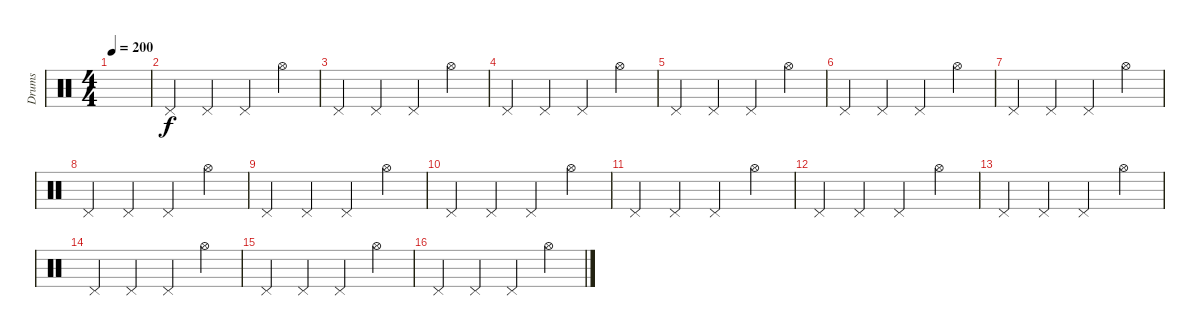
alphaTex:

\track ("Drums" "Drums") {instrument percussion}
\staff {score}
\articulation defaults
\ts (4 4)
\tempo 200
\clef neutral
\ks c
|
"Pedal Hi-Hat (hit)".4 "Pedal Hi-Hat (hit)".4 "Pedal Hi-Hat (hit)".4 "Hi-Hat (open)".4 |
"Pedal Hi-Hat (hit)".4 "Pedal Hi-Hat (hit)".4 "Pedal Hi-Hat (hit)".4 "Hi-Hat (open)".4 |
"Pedal Hi-Hat (hit)".4 "Pedal Hi-Hat (hit)".4 "Pedal Hi-Hat (hit)".4 "Hi-Hat (open)".4 |
"Pedal Hi-Hat (hit)".4 "Pedal Hi-Hat (hit)".4 "Pedal Hi-Hat (hit)".4 "Hi-Hat (open)".4 |
"Pedal Hi-Hat (hit)".4 "Pedal Hi-Hat (hit)".4 "Pedal Hi-Hat (hit)".4 "Hi-Hat (open)".4 |
"Pedal Hi-Hat (hit)".4 "Pedal Hi-Hat (hit)".4 "Pedal Hi-Hat (hit)".4 "Hi-Hat (open)".4 |
"Pedal Hi-Hat (hit)".4 "Pedal Hi-Hat (hit)".4 "Pedal Hi-Hat (hit)".4 "Hi-Hat (open)".4 |
"Pedal Hi-Hat (hit)".4 "Pedal Hi-Hat (hit)".4 "Pedal Hi-Hat (hit)".4 "Hi-Hat (open)".4 |
"Pedal Hi-Hat (hit)".4 "Pedal Hi-Hat (hit)".4 "Pedal Hi-Hat (hit)".4 "Hi-Hat (open)".4 |
"Pedal Hi-Hat (hit)".4 "Pedal Hi-Hat (hit)".4 "Pedal Hi-Hat (hit)".4 "Hi-Hat (open)".4 |
"Pedal Hi-Hat (hit)".4 "Pedal Hi-Hat (hit)".4 "Pedal Hi-Hat (hit)".4 "Hi-Hat (open)".4 |
"Pedal Hi-Hat (hit)".4 "Pedal Hi-Hat (hit)".4 "Pedal Hi-Hat (hit)".4 "Hi-Hat (open)".4 |
"Pedal Hi-Hat (hit)".4 "Pedal Hi-Hat (hit)".4 "Pedal Hi-Hat (hit)".4 "Hi-Hat (open)".4 |
"Pedal Hi-Hat (hit)".4 "Pedal Hi-Hat (hit)".4 "Pedal Hi-Hat (hit)".4 "Hi-Hat (open)".4 |
"Pedal Hi-Hat (hit)".4 "Pedal Hi-Hat (hit)".4 "Pedal Hi-Hat (hit)".4 "Hi-Hat (open)".4
